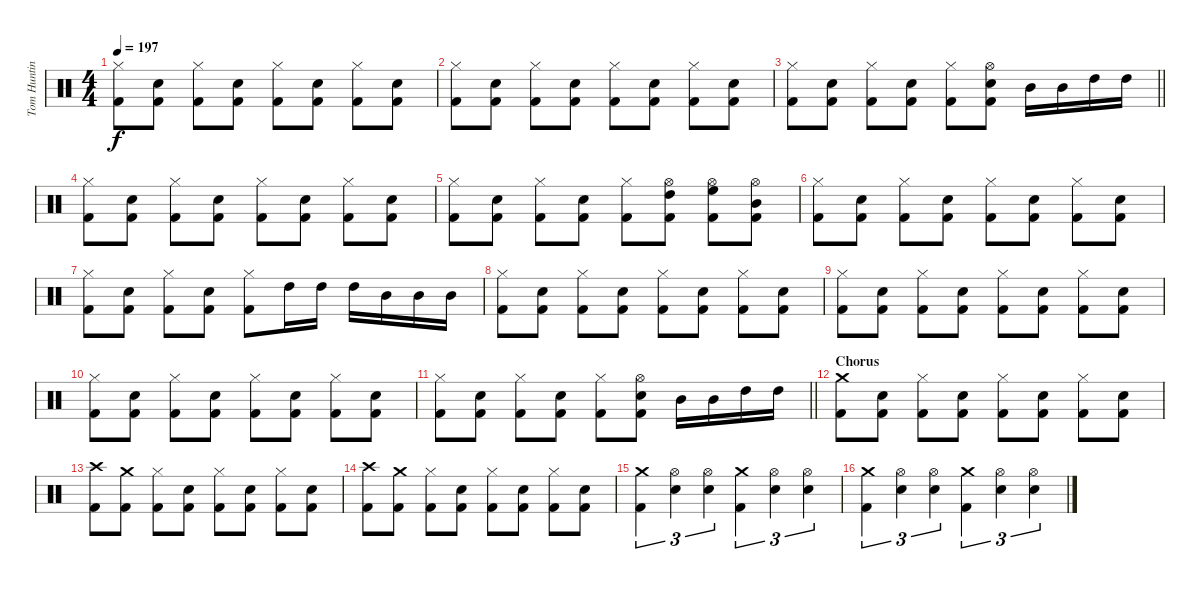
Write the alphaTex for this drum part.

\track ("Tom Hunting" "Tom Huntin") {instrument percussion}
\staff {score}
\articulation defaults
\ts (4 4)
\tempo 197
\clef neutral
\ks c
("Hi-Hat (closed)" "Kick (hit) 2").8{dy f} ("Snare (hit) 2" "Kick (hit) 2").8 ("Hi-Hat (closed)" "Kick (hit) 2").8 ("Snare (hit) 2" "Kick (hit) 2").8 ("Hi-Hat (closed)" "Kick (hit) 2").8 ("Snare (hit) 2" "Kick (hit) 2").8 ("Hi-Hat (closed)" "Kick (hit) 2").8 ("Snare (hit) 2" "Kick (hit) 2").8 |
("Hi-Hat (closed)" "Kick (hit) 2").8 ("Snare (hit) 2" "Kick (hit) 2").8 ("Hi-Hat (closed)" "Kick (hit) 2").8 ("Snare (hit) 2" "Kick (hit) 2").8 ("Hi-Hat (closed)" "Kick (hit) 2").8 ("Snare (hit) 2" "Kick (hit) 2").8 ("Hi-Hat (closed)" "Kick (hit) 2").8 ("Snare (hit) 2" "Kick (hit) 2").8 |
\barLineRight lightlight
("Hi-Hat (closed)" "Kick (hit) 2").8 ("Snare (hit) 2" "Kick (hit) 2").8 ("Hi-Hat (closed)" "Kick (hit) 2").8 ("Snare (hit) 2" "Kick (hit) 2").8 ("Hi-Hat (closed)" "Kick (hit) 2").8 ("Hi-Hat (open)" "Snare (hit) 2" "Kick (hit) 2").8 "Mid Tom (hit)".16 "Mid Tom (hit)".16 "High Tom (hit)".16 "High Tom (hit)".16 |
("Hi-Hat (closed)" "Kick (hit) 2").8 ("Snare (hit) 2" "Kick (hit) 2").8 ("Hi-Hat (closed)" "Kick (hit) 2").8 ("Snare (hit) 2" "Kick (hit) 2").8 ("Hi-Hat (closed)" "Kick (hit) 2").8 ("Snare (hit) 2" "Kick (hit) 2").8 ("Hi-Hat (closed)" "Kick (hit) 2").8 ("Snare (hit) 2" "Kick (hit) 2").8 |
("Hi-Hat (closed)" "Kick (hit) 2").8 ("Snare (hit) 2" "Kick (hit) 2").8 ("Hi-Hat (closed)" "Kick (hit) 2").8 ("Snare (hit) 2" "Kick (hit) 2").8 ("Hi-Hat (closed)" "Kick (hit) 2").8 ("Hi-Hat (open)" "High Tom (hit)" "Kick (hit) 2").8 ("Hi-Hat (open)" "High Floor Tom (hit)" "Kick (hit) 2").8 ("Hi-Hat (open)" "Mid Tom (hit)" "Kick (hit) 2").8 |
("Hi-Hat (closed)" "Kick (hit) 2").8 ("Snare (hit) 2" "Kick (hit) 2").8 ("Hi-Hat (closed)" "Kick (hit) 2").8 ("Snare (hit) 2" "Kick (hit) 2").8 ("Hi-Hat (closed)" "Kick (hit) 2").8 ("Snare (hit) 2" "Kick (hit) 2").8 ("Hi-Hat (closed)" "Kick (hit) 2").8 ("Snare (hit) 2" "Kick (hit) 2").8 |
("Hi-Hat (closed)" "Kick (hit) 2").8 ("Snare (hit) 2" "Kick (hit) 2").8 ("Hi-Hat (closed)" "Kick (hit) 2").8 ("Snare (hit) 2" "Kick (hit) 2").8 ("Hi-Hat (closed)" "Kick (hit) 2").8 "High Tom (hit)".16 "High Tom (hit)".16 "High Tom (hit)".16 "Mid Tom (hit)".16 "Mid Tom (hit)".16 "Mid Tom (hit)".16 |
("Hi-Hat (closed)" "Kick (hit) 2").8 ("Snare (hit) 2" "Kick (hit) 2").8 ("Hi-Hat (closed)" "Kick (hit) 2").8 ("Snare (hit) 2" "Kick (hit) 2").8 ("Hi-Hat (closed)" "Kick (hit) 2").8 ("Snare (hit) 2" "Kick (hit) 2").8 ("Hi-Hat (closed)" "Kick (hit) 2").8 ("Snare (hit) 2" "Kick (hit) 2").8 |
("Hi-Hat (closed)" "Kick (hit) 2").8 ("Snare (hit) 2" "Kick (hit) 2").8 ("Hi-Hat (closed)" "Kick (hit) 2").8 ("Snare (hit) 2" "Kick (hit) 2").8 ("Hi-Hat (closed)" "Kick (hit) 2").8 ("Snare (hit) 2" "Kick (hit) 2").8 ("Hi-Hat (closed)" "Kick (hit) 2").8 ("Snare (hit) 2" "Kick (hit) 2").8 |
("Hi-Hat (closed)" "Kick (hit) 2").8 ("Snare (hit) 2" "Kick (hit) 2").8 ("Hi-Hat (closed)" "Kick (hit) 2").8 ("Snare (hit) 2" "Kick (hit) 2").8 ("Hi-Hat (closed)" "Kick (hit) 2").8 ("Snare (hit) 2" "Kick (hit) 2").8 ("Hi-Hat (closed)" "Kick (hit) 2").8 ("Snare (hit) 2" "Kick (hit) 2").8 |
\barLineRight lightlight
("Hi-Hat (closed)" "Kick (hit) 2").8 ("Snare (hit) 2" "Kick (hit) 2").8 ("Hi-Hat (closed)" "Kick (hit) 2").8 ("Snare (hit) 2" "Kick (hit) 2").8 ("Hi-Hat (closed)" "Kick (hit) 2").8 ("Hi-Hat (open)" "Snare (hit) 2" "Kick (hit) 2").8 "Mid Tom (hit)".16 "Mid Tom (hit)".16 "High Tom (hit)".16 "High Tom (hit)".16 |
\section ("" "Chorus")
("Crash medium (hit)" "Kick (hit) 2").8 ("Snare (hit) 2" "Kick (hit) 2").8 ("Hi-Hat (closed)" "Kick (hit) 2").8 ("Snare (hit) 2" "Kick (hit) 2").8 ("Hi-Hat (closed)" "Kick (hit) 2").8 ("Snare (hit) 2" "Kick (hit) 2").8 ("Hi-Hat (closed)" "Kick (hit) 2").8 ("Snare (hit) 2" "Kick (hit) 2").8 |
("Crash high (hit)" "Kick (hit) 2").8 ("Crash medium (hit)" "Kick (hit) 2").8 ("Hi-Hat (closed)" "Kick (hit) 2").8 ("Snare (hit) 2" "Kick (hit) 2").8 ("Hi-Hat (closed)" "Kick (hit) 2").8 ("Snare (hit) 2" "Kick (hit) 2").8 ("Hi-Hat (closed)" "Kick (hit) 2").8 ("Snare (hit) 2" "Kick (hit) 2").8 |
("Crash high (hit)" "Kick (hit) 2").8 ("Crash medium (hit)" "Kick (hit) 2").8 ("Hi-Hat (closed)" "Kick (hit) 2").8 ("Snare (hit) 2" "Kick (hit) 2").8 ("Hi-Hat (closed)" "Kick (hit) 2").8 ("Snare (hit) 2" "Kick (hit) 2").8 ("Hi-Hat (closed)" "Kick (hit) 2").8 ("Snare (hit) 2" "Kick (hit) 2").8 |
("Crash medium (hit)" "Kick (hit) 2").4{tu (3 2)} ("Hi-Hat (open)" "Snare (hit) 2").4{tu (3 2)} ("Hi-Hat (open)" "Snare (hit) 2").4{tu (3 2)} ("Crash medium (hit)" "Kick (hit) 2").4{tu (3 2)} ("Hi-Hat (open)" "Snare (hit) 2").4{tu (3 2)} ("Hi-Hat (open)" "Snare (hit) 2").4{tu (3 2)} |
("Crash medium (hit)" "Kick (hit) 2").4{tu (3 2)} ("Hi-Hat (open)" "Snare (hit) 2").4{tu (3 2)} ("Hi-Hat (open)" "Snare (hit) 2").4{tu (3 2)} ("Crash medium (hit)" "Kick (hit) 2").4{tu (3 2)} ("Hi-Hat (open)" "Snare (hit) 2").4{tu (3 2)} ("Hi-Hat (open)" "Snare (hit) 2").4{tu (3 2)}
